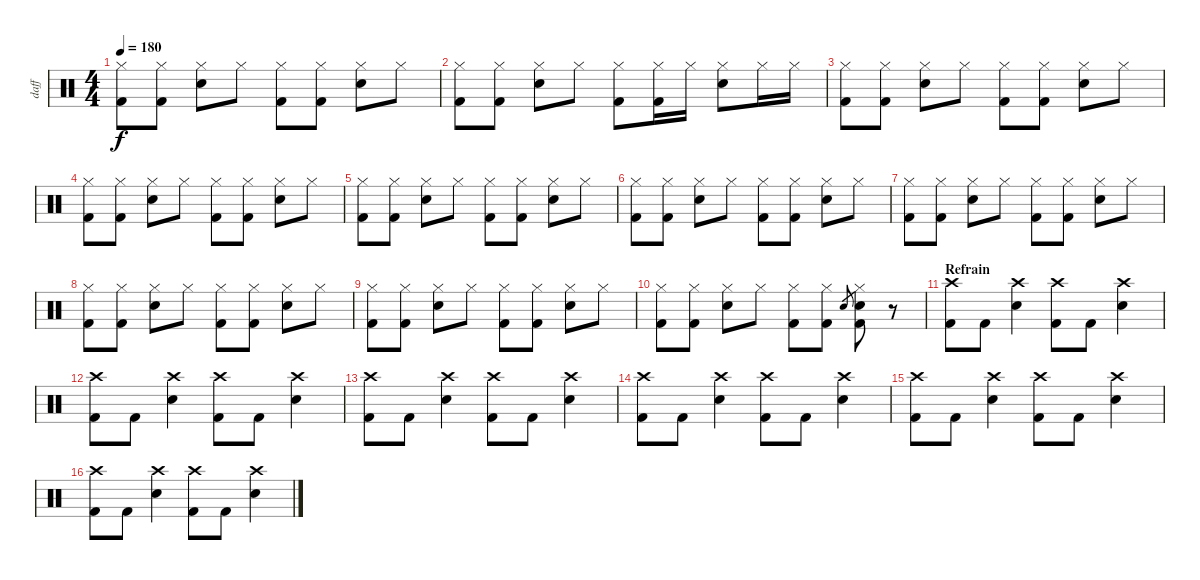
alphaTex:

\track ("daff" "daff") {instrument percussion}
\staff {score}
\articulation defaults
\ts (4 4)
\tempo 180
\clef neutral
\ks c
("Hi-Hat (closed)" "Kick (hit) 2").8{dy f} ("Hi-Hat (closed)" "Kick (hit) 2").8 ("Hi-Hat (closed)" "Electric Snare (hit)").8 "Hi-Hat (closed)".8 ("Hi-Hat (closed)" "Kick (hit) 2").8 ("Hi-Hat (closed)" "Kick (hit) 2").8 ("Hi-Hat (closed)" "Electric Snare (hit)").8 "Hi-Hat (closed)".8 |
("Hi-Hat (closed)" "Kick (hit) 2").8 ("Hi-Hat (closed)" "Kick (hit) 2").8 ("Hi-Hat (closed)" "Electric Snare (hit)").8 "Hi-Hat (closed)".8 ("Hi-Hat (closed)" "Kick (hit) 2").8 ("Hi-Hat (closed)" "Kick (hit) 2").16 "Hi-Hat (closed)".16 ("Hi-Hat (closed)" "Electric Snare (hit)").8 "Hi-Hat (closed)".16 "Hi-Hat (closed)".16 |
("Hi-Hat (closed)" "Kick (hit) 2").8 ("Hi-Hat (closed)" "Kick (hit) 2").8 ("Hi-Hat (closed)" "Electric Snare (hit)").8 "Hi-Hat (closed)".8 ("Hi-Hat (closed)" "Kick (hit) 2").8 ("Hi-Hat (closed)" "Kick (hit) 2").8 ("Hi-Hat (closed)" "Electric Snare (hit)").8 "Hi-Hat (closed)".8 |
("Hi-Hat (closed)" "Kick (hit) 2").8 ("Hi-Hat (closed)" "Kick (hit) 2").8 ("Hi-Hat (closed)" "Electric Snare (hit)").8 "Hi-Hat (closed)".8 ("Hi-Hat (closed)" "Kick (hit) 2").8 ("Hi-Hat (closed)" "Kick (hit) 2").8 ("Hi-Hat (closed)" "Electric Snare (hit)").8 "Hi-Hat (closed)".8 |
("Hi-Hat (closed)" "Kick (hit) 2").8 ("Hi-Hat (closed)" "Kick (hit) 2").8 ("Hi-Hat (closed)" "Electric Snare (hit)").8 "Hi-Hat (closed)".8 ("Hi-Hat (closed)" "Kick (hit) 2").8 ("Hi-Hat (closed)" "Kick (hit) 2").8 ("Hi-Hat (closed)" "Electric Snare (hit)").8 "Hi-Hat (closed)".8 |
("Hi-Hat (closed)" "Kick (hit) 2").8 ("Hi-Hat (closed)" "Kick (hit) 2").8 ("Hi-Hat (closed)" "Electric Snare (hit)").8 "Hi-Hat (closed)".8 ("Hi-Hat (closed)" "Kick (hit) 2").8 ("Hi-Hat (closed)" "Kick (hit) 2").8 ("Hi-Hat (closed)" "Electric Snare (hit)").8 "Hi-Hat (closed)".8 |
("Hi-Hat (closed)" "Kick (hit) 2").8 ("Hi-Hat (closed)" "Kick (hit) 2").8 ("Hi-Hat (closed)" "Electric Snare (hit)").8 "Hi-Hat (closed)".8 ("Hi-Hat (closed)" "Kick (hit) 2").8 ("Hi-Hat (closed)" "Kick (hit) 2").8 ("Hi-Hat (closed)" "Electric Snare (hit)").8 "Hi-Hat (closed)".8 |
("Hi-Hat (closed)" "Kick (hit) 2").8 ("Hi-Hat (closed)" "Kick (hit) 2").8 ("Hi-Hat (closed)" "Electric Snare (hit)").8 "Hi-Hat (closed)".8 ("Hi-Hat (closed)" "Kick (hit) 2").8 ("Hi-Hat (closed)" "Kick (hit) 2").8 ("Hi-Hat (closed)" "Electric Snare (hit)").8 "Hi-Hat (closed)".8 |
("Hi-Hat (closed)" "Kick (hit) 2").8 ("Hi-Hat (closed)" "Kick (hit) 2").8 ("Hi-Hat (closed)" "Electric Snare (hit)").8 "Hi-Hat (closed)".8 ("Hi-Hat (closed)" "Kick (hit) 2").8 ("Hi-Hat (closed)" "Kick (hit) 2").8 ("Hi-Hat (closed)" "Electric Snare (hit)").8 "Hi-Hat (closed)".8 |
("Hi-Hat (closed)" "Kick (hit) 2").8 ("Hi-Hat (closed)" "Kick (hit) 2").8 ("Hi-Hat (closed)" "Electric Snare (hit)").8 "Hi-Hat (closed)".8 ("Hi-Hat (closed)" "Kick (hit) 2").8 ("Hi-Hat (closed)" "Kick (hit) 2").8 "Electric Snare (hit)".8{gr} ("Hi-Hat (closed)" "Electric Snare (hit)" "Kick (hit) 2").8 r.8 |
\section ("" "Refrain")
("Crash high (hit)" "Kick (hit) 2").8 "Kick (hit) 2".8 ("Crash high (hit)" "Electric Snare (hit)").4 ("Crash high (hit)" "Kick (hit) 2").8 "Kick (hit) 2".8 ("Crash high (hit)" "Electric Snare (hit)").4 |
("Crash high (hit)" "Kick (hit) 2").8 "Kick (hit) 2".8 ("Crash high (hit)" "Electric Snare (hit)").4 ("Crash high (hit)" "Kick (hit) 2").8 "Kick (hit) 2".8 ("Crash high (hit)" "Electric Snare (hit)").4 |
("Crash high (hit)" "Kick (hit) 2").8 "Kick (hit) 2".8 ("Crash high (hit)" "Electric Snare (hit)").4 ("Crash high (hit)" "Kick (hit) 2").8 "Kick (hit) 2".8 ("Crash high (hit)" "Electric Snare (hit)").4 |
("Crash high (hit)" "Kick (hit) 2").8 "Kick (hit) 2".8 ("Crash high (hit)" "Electric Snare (hit)").4 ("Crash high (hit)" "Kick (hit) 2").8 "Kick (hit) 2".8 ("Crash high (hit)" "Electric Snare (hit)").4 |
("Crash high (hit)" "Kick (hit) 2").8 "Kick (hit) 2".8 ("Crash high (hit)" "Electric Snare (hit)").4 ("Crash high (hit)" "Kick (hit) 2").8 "Kick (hit) 2".8 ("Crash high (hit)" "Electric Snare (hit)").4 |
("Crash high (hit)" "Kick (hit) 2").8 "Kick (hit) 2".8 ("Crash high (hit)" "Electric Snare (hit)").4 ("Crash high (hit)" "Kick (hit) 2").8 "Kick (hit) 2".8 ("Crash high (hit)" "Electric Snare (hit)").4
